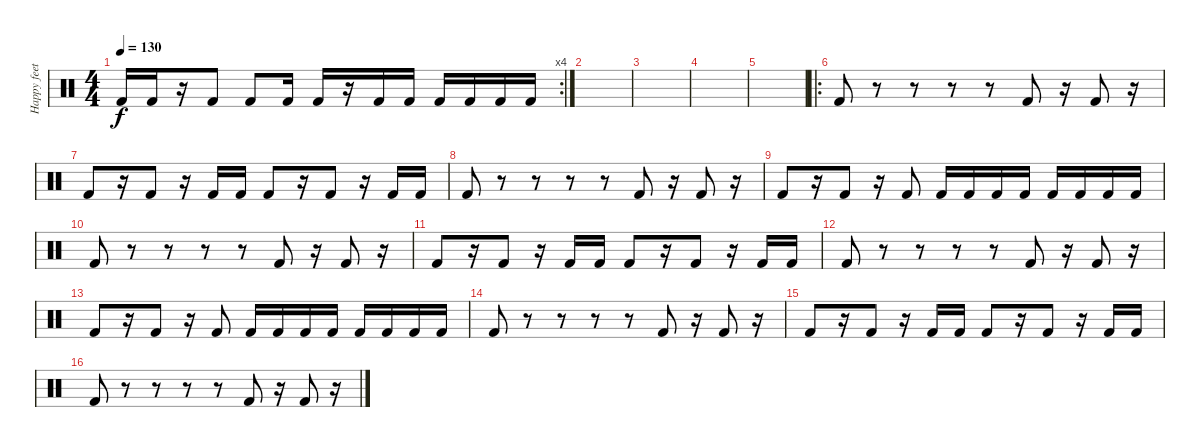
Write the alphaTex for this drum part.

\track ("Happy feet" "Happy feet") {instrument percussion}
\staff {score}
\articulation defaults
\rc 4
\ts (4 4)
\tempo 130
\clef neutral
\ks c "Kick (hit) 2".16{dy f} "Kick (hit) 2".16
r.16 "Kick (hit) 2".8 "Kick (hit) 2".8 "Kick (hit) 2".16 "Kick (hit) 2".16 r.16 "Kick (hit) 2".16 "Kick (hit) 2".16 "Kick (hit) 2".16 "Kick (hit) 2".16 "Kick (hit) 2".16 "Kick (hit) 2".16 |
|
|
|
|
\ro "Kick (hit) 2".8
r.8 r.8 r.8 r.8 "Kick (hit) 2".8 r.16 "Kick (hit) 2".8 r.16 |
"Kick (hit) 2".8 r.16 "Kick (hit) 2".8 r.16 "Kick (hit) 2".16 "Kick (hit) 2".16 "Kick (hit) 2".8 r.16 "Kick (hit) 2".8 r.16 "Kick (hit) 2".16 "Kick (hit) 2".16 |
"Kick (hit) 2".8 r.8 r.8 r.8 r.8 "Kick (hit) 2".8 r.16 "Kick (hit) 2".8 r.16 |
"Kick (hit) 2".8 r.16 "Kick (hit) 2".8 r.16 "Kick (hit) 2".8 "Kick (hit) 2".16 "Kick (hit) 2".16 "Kick (hit) 2".16 "Kick (hit) 2".16 "Kick (hit) 2".16 "Kick (hit) 2".16 "Kick (hit) 2".16 "Kick (hit) 2".16 |
"Kick (hit) 2".8 r.8 r.8 r.8 r.8 "Kick (hit) 2".8 r.16 "Kick (hit) 2".8 r.16 |
"Kick (hit) 2".8 r.16 "Kick (hit) 2".8 r.16 "Kick (hit) 2".16 "Kick (hit) 2".16 "Kick (hit) 2".8 r.16 "Kick (hit) 2".8 r.16 "Kick (hit) 2".16 "Kick (hit) 2".16 |
"Kick (hit) 2".8 r.8 r.8 r.8 r.8 "Kick (hit) 2".8 r.16 "Kick (hit) 2".8 r.16 |
"Kick (hit) 2".8 r.16 "Kick (hit) 2".8 r.16 "Kick (hit) 2".8 "Kick (hit) 2".16 "Kick (hit) 2".16 "Kick (hit) 2".16 "Kick (hit) 2".16 "Kick (hit) 2".16 "Kick (hit) 2".16 "Kick (hit) 2".16 "Kick (hit) 2".16 |
"Kick (hit) 2".8 r.8 r.8 r.8 r.8 "Kick (hit) 2".8 r.16 "Kick (hit) 2".8 r.16 |
"Kick (hit) 2".8 r.16 "Kick (hit) 2".8 r.16 "Kick (hit) 2".16 "Kick (hit) 2".16 "Kick (hit) 2".8 r.16 "Kick (hit) 2".8 r.16 "Kick (hit) 2".16 "Kick (hit) 2".16 |
"Kick (hit) 2".8 r.8 r.8 r.8 r.8 "Kick (hit) 2".8 r.16 "Kick (hit) 2".8 r.16
